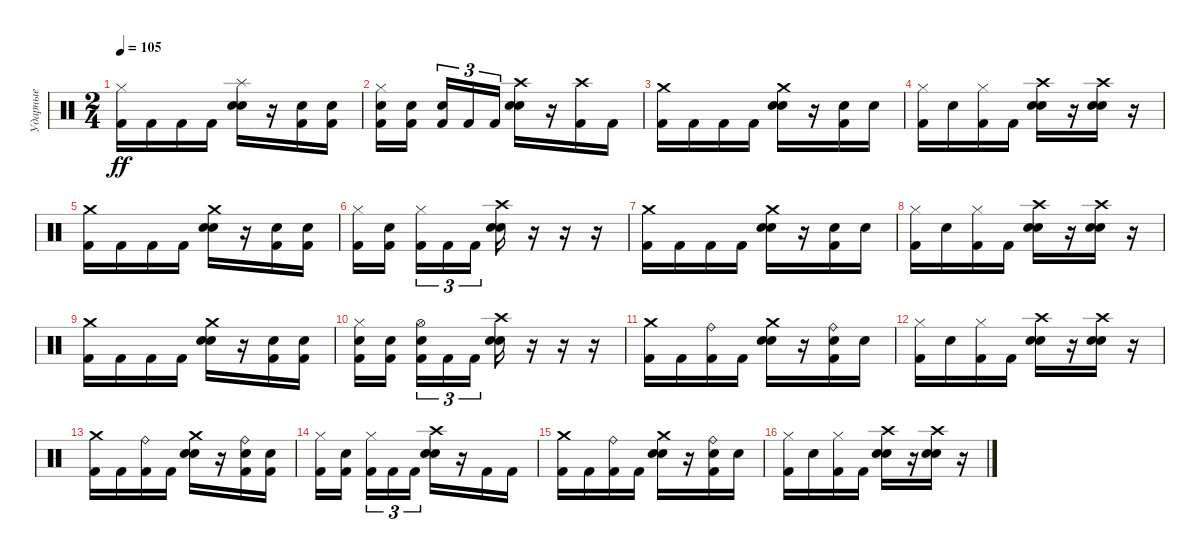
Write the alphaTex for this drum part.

\track ("Ударные" "Ударные") {instrument percussion}
\staff {score}
\articulation defaults
\ts (2 4)
\tempo 105
\clef neutral
\ks c
("Hi-Hat (closed)" "Kick (hit) 2").16{dy ff} "Kick (hit) 2".16 "Kick (hit) 2".16 "Kick (hit) 2".16 ("Splash (hit)" "Snare (hit) 2" "Electric Snare (hit)").16 r.16 ("Kick (hit) 2" "Electric Snare (hit)").16 ("Kick (hit) 2" "Electric Snare (hit)").16 |
("Hi-Hat (closed)" "Kick (hit) 2" "Electric Snare (hit)").16 ("Kick (hit) 2" "Electric Snare (hit)").16 ("Kick (hit) 2" "Electric Snare (hit)").16{tu (3 2)} "Kick (hit) 2".16{tu (3 2)} "Kick (hit) 2".16{tu (3 2)} ("Crash high (hit)" "Snare (hit) 2" "Electric Snare (hit)").16 r.16 ("Crash high (hit)" "Kick (hit) 2").16 "Kick (hit) 2".16 |
("Crash medium (hit)" "Kick (hit) 2").16 "Kick (hit) 2".16 "Kick (hit) 2".16 "Kick (hit) 2".16 ("Crash medium (hit)" "Snare (hit) 2" "Electric Snare (hit)").16 r.16 ("Kick (hit) 2" "Electric Snare (hit)").16 "Electric Snare (hit)".16 |
("Hi-Hat (closed)" "Kick (hit) 2").16 "Electric Snare (hit)".16 ("Hi-Hat (closed)" "Kick (hit) 2").16 "Kick (hit) 2".16 ("Crash high (hit)" "Snare (hit) 2" "Electric Snare (hit)").16 r.16 ("Crash high (hit)" "Snare (hit) 2" "Electric Snare (hit)").16 r.16 |
("Crash medium (hit)" "Kick (hit) 2").16 "Kick (hit) 2".16 "Kick (hit) 2".16 "Kick (hit) 2".16 ("Crash medium (hit)" "Snare (hit) 2" "Electric Snare (hit)").16 r.16 ("Kick (hit) 2" "Electric Snare (hit)").16 ("Kick (hit) 2" "Electric Snare (hit)").16 |
("Hi-Hat (closed)" "Kick (hit) 2").16 ("Kick (hit) 2" "Electric Snare (hit)").16 ("Hi-Hat (closed)" "Kick (hit) 2").16{tu (3 2)} "Kick (hit) 2".16{tu (3 2)} "Kick (hit) 2".16{tu (3 2)} ("Crash high (hit)" "Snare (hit) 2" "Electric Snare (hit)").16 r.16 r.16 r.16 |
("Crash medium (hit)" "Kick (hit) 2").16 "Kick (hit) 2".16 "Kick (hit) 2".16 "Kick (hit) 2".16 ("Crash medium (hit)" "Snare (hit) 2" "Electric Snare (hit)").16 r.16 ("Kick (hit) 2" "Electric Snare (hit)").16 "Electric Snare (hit)".16 |
("Hi-Hat (closed)" "Kick (hit) 2").16 "Electric Snare (hit)".16 ("Hi-Hat (closed)" "Kick (hit) 2").16 "Kick (hit) 2".16 ("Crash high (hit)" "Snare (hit) 2" "Electric Snare (hit)").16 r.16 ("Crash high (hit)" "Snare (hit) 2" "Electric Snare (hit)").16 r.16 |
("Crash medium (hit)" "Kick (hit) 2").16 "Kick (hit) 2".16 "Kick (hit) 2".16 "Kick (hit) 2".16 ("Crash medium (hit)" "Snare (hit) 2" "Electric Snare (hit)").16 r.16 ("Kick (hit) 2" "Electric Snare (hit)").16 ("Kick (hit) 2" "Electric Snare (hit)").16 |
("Hi-Hat (closed)" "Kick (hit) 2" "Electric Snare (hit)").16 ("Kick (hit) 2" "Electric Snare (hit)").16 ("Hi-Hat (open)" "Kick (hit) 2" "Electric Snare (hit)").16{tu (3 2)} "Kick (hit) 2".16{tu (3 2)} "Kick (hit) 2".16{tu (3 2)} ("Crash high (hit)" "Snare (hit) 2" "Electric Snare (hit)").16 r.16 r.16 r.16 |
("Crash medium (hit)" "Kick (hit) 2").16 "Kick (hit) 2".16 ("Ride (bell)" "Kick (hit) 2").16 "Kick (hit) 2".16 ("Crash medium (hit)" "Snare (hit) 2" "Electric Snare (hit)").16 r.16 ("Ride (bell)" "Kick (hit) 2" "Electric Snare (hit)").16 "Electric Snare (hit)".16 |
("Hi-Hat (closed)" "Kick (hit) 2").16 "Electric Snare (hit)".16 ("Hi-Hat (closed)" "Kick (hit) 2").16 "Kick (hit) 2".16 ("Crash high (hit)" "Snare (hit) 2" "Electric Snare (hit)").16 r.16 ("Crash high (hit)" "Snare (hit) 2" "Electric Snare (hit)").16 r.16 |
("Crash medium (hit)" "Kick (hit) 2").16 "Kick (hit) 2".16 ("Ride (bell)" "Kick (hit) 2").16 "Kick (hit) 2".16 ("Crash medium (hit)" "Snare (hit) 2" "Electric Snare (hit)").16 r.16 ("Ride (bell)" "Kick (hit) 2" "Electric Snare (hit)").16 ("Kick (hit) 2" "Electric Snare (hit)").16 |
("Hi-Hat (closed)" "Kick (hit) 2").16 ("Kick (hit) 2" "Electric Snare (hit)").16 ("Hi-Hat (closed)" "Kick (hit) 2").16{tu (3 2)} "Kick (hit) 2".16{tu (3 2)} "Kick (hit) 2".16{tu (3 2)} ("Crash high (hit)" "Snare (hit) 2" "Electric Snare (hit)").16 r.16 "Kick (hit) 2".16 "Kick (hit) 2".16 |
("Crash medium (hit)" "Kick (hit) 2").16 "Kick (hit) 2".16 ("Ride (bell)" "Kick (hit) 2").16 "Kick (hit) 2".16 ("Crash medium (hit)" "Snare (hit) 2" "Electric Snare (hit)").16 r.16 ("Ride (bell)" "Kick (hit) 2" "Electric Snare (hit)").16 "Electric Snare (hit)".16 |
("Hi-Hat (closed)" "Kick (hit) 2").16 "Electric Snare (hit)".16 ("Hi-Hat (closed)" "Kick (hit) 2").16 "Kick (hit) 2".16 ("Crash high (hit)" "Snare (hit) 2" "Electric Snare (hit)").16 r.16 ("Crash high (hit)" "Snare (hit) 2" "Electric Snare (hit)").16 r.16
